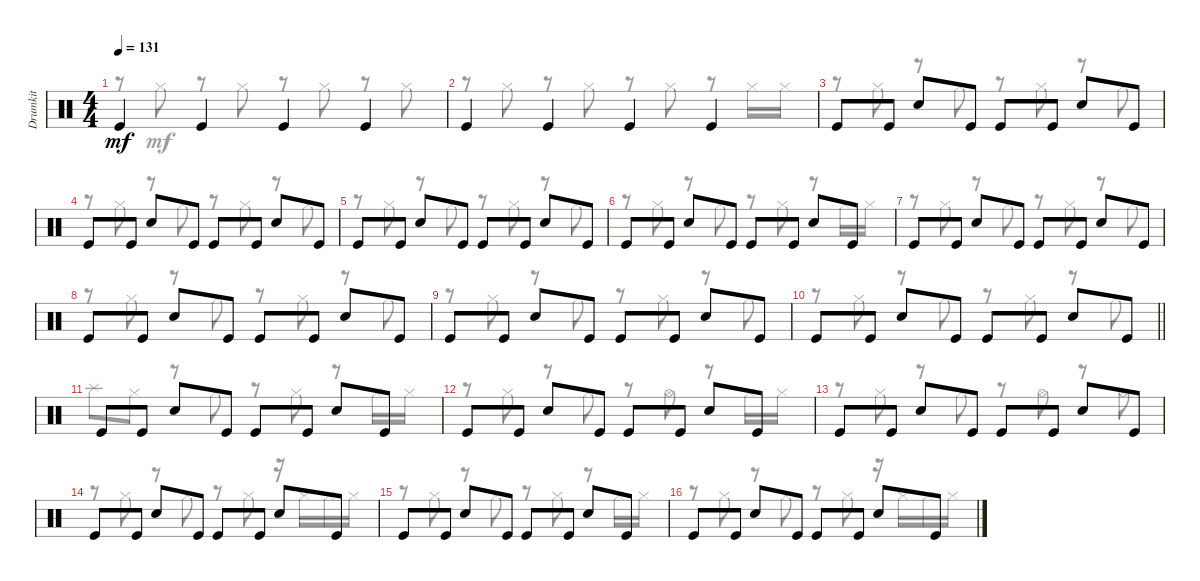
\track ("Drumkit" "Drumkit") {instrument percussion}
\staff {score}
\articulation defaults
\voice
\ts (4 4)
\tempo 131
\clef neutral
\ks c "Kick (hit)".4{dy mf} "Kick (hit)".4 "Kick (hit)".4 "Kick (hit)".4
|
"Kick (hit)".4 "Kick (hit)".4 "Kick (hit)".4 "Kick (hit)".4 |
"Kick (hit)".8 "Kick (hit)".8 "Snare (hit) 2".8 "Kick (hit)".8 "Kick (hit)".8 "Kick (hit)".8 "Snare (hit) 2".8 "Kick (hit)".8 |
"Kick (hit)".8 "Kick (hit)".8 "Snare (hit) 2".8 "Kick (hit)".8 "Kick (hit)".8 "Kick (hit)".8 "Snare (hit) 2".8 "Kick (hit)".8 |
"Kick (hit)".8 "Kick (hit)".8 "Snare (hit) 2".8 "Kick (hit)".8 "Kick (hit)".8 "Kick (hit)".8 "Snare (hit) 2".8 "Kick (hit)".8 |
"Kick (hit)".8 "Kick (hit)".8 "Snare (hit) 2".8 "Kick (hit)".8 "Kick (hit)".8 "Kick (hit)".8 "Snare (hit) 2".8 "Kick (hit)".8 |
"Kick (hit)".8 "Kick (hit)".8 "Snare (hit) 2".8 "Kick (hit)".8 "Kick (hit)".8 "Kick (hit)".8 "Snare (hit) 2".8 "Kick (hit)".8 |
"Kick (hit)".8 "Kick (hit)".8 "Snare (hit) 2".8 "Kick (hit)".8 "Kick (hit)".8 "Kick (hit)".8 "Snare (hit) 2".8 "Kick (hit)".8 |
"Kick (hit)".8 "Kick (hit)".8 "Snare (hit) 2".8 "Kick (hit)".8 "Kick (hit)".8 "Kick (hit)".8 "Snare (hit) 2".8 "Kick (hit)".8 |
\barLineRight lightlight "Kick (hit)".8 "Kick (hit)".8 "Snare (hit) 2".8 "Kick (hit)".8 "Kick (hit)".8 "Kick (hit)".8 "Snare (hit) 2".8 "Kick (hit)".8
|
"Kick (hit)".8 "Kick (hit)".8 "Snare (hit) 2".8 "Kick (hit)".8 "Kick (hit)".8 "Kick (hit)".8 "Snare (hit) 2".8 "Kick (hit)".8 |
"Kick (hit)".8 "Kick (hit)".8 "Snare (hit) 2".8 "Kick (hit)".8 "Kick (hit)".8 "Kick (hit)".8 "Snare (hit) 2".8 "Kick (hit)".8 |
"Kick (hit)".8 "Kick (hit)".8 "Snare (hit) 2".8 "Kick (hit)".8 "Kick (hit)".8 "Kick (hit)".8 "Snare (hit) 2".8 "Kick (hit)".8 |
"Kick (hit)".8 "Kick (hit)".8 "Snare (hit) 2".8 "Kick (hit)".8 "Kick (hit)".8 "Kick (hit)".8 "Snare (hit) 2".8 "Kick (hit)".8 |
"Kick (hit)".8 "Kick (hit)".8 "Snare (hit) 2".8 "Kick (hit)".8 "Kick (hit)".8 "Kick (hit)".8 "Snare (hit) 2".8 "Kick (hit)".8 |
"Kick (hit)".8 "Kick (hit)".8 "Snare (hit) 2".8 "Kick (hit)".8 "Kick (hit)".8 "Kick (hit)".8 "Snare (hit) 2".8 "Kick (hit)".8
\voice
\clef neutral
\ottava regular
\simile none
\ks c
r.8{dy mf} "Hi-Hat (closed)".8 r.8 "Hi-Hat (closed)".8 r.8 "Hi-Hat (closed)".8 r.8 "Hi-Hat (closed)".8 |
r.8 "Hi-Hat (closed)".8 r.8 "Hi-Hat (closed)".8 r.8 "Hi-Hat (closed)".8 r.8 "Hi-Hat (closed)".16 "Hi-Hat (closed)".16 |
r.8 "Hi-Hat (closed)".8 r.8 "Hi-Hat (closed)".8 r.8 "Hi-Hat (closed)".8 r.8 "Hi-Hat (closed)".8 |
r.8 "Hi-Hat (closed)".8 r.8 "Hi-Hat (closed)".8 r.8 "Hi-Hat (closed)".8 r.8 "Hi-Hat (closed)".8 |
r.8 "Hi-Hat (closed)".8 r.8 "Hi-Hat (closed)".8 r.8 "Hi-Hat (closed)".8 r.8 "Hi-Hat (closed)".8 |
r.8 "Hi-Hat (closed)".8 r.8 "Hi-Hat (closed)".8 r.8 "Hi-Hat (closed)".8 r.8 "Hi-Hat (closed)".16 "Hi-Hat (closed)".16 |
r.8 "Hi-Hat (closed)".8 r.8 "Hi-Hat (closed)".8 r.8 "Hi-Hat (closed)".8 r.8 "Hi-Hat (closed)".8 |
r.8 "Hi-Hat (closed)".8 r.8 "Hi-Hat (closed)".8 r.8 "Hi-Hat (closed)".8 r.8 "Hi-Hat (closed)".8 |
r.8 "Hi-Hat (closed)".8 r.8 "Hi-Hat (closed)".8 r.8 "Hi-Hat (closed)".8 r.8 "Hi-Hat (closed)".8 |
\barLineRight lightlight
r.8 "Hi-Hat (closed)".8 r.8 "Hi-Hat (closed)".8 r.8 "Hi-Hat (closed)".8 r.8 "Hi-Hat (closed)".8 |
"Splash (hit)".8 "Hi-Hat (closed)".8 r.8 "Hi-Hat (closed)".8 r.8 "Hi-Hat (closed)".8 r.8 "Hi-Hat (closed)".16 "Hi-Hat (closed)".16 |
r.8 "Hi-Hat (closed)".8 r.8 "Hi-Hat (closed)".8 r.8 "Hi-Hat (open)".8 r.8 "Hi-Hat (closed)".16 "Hi-Hat (closed)".16 |
r.8 "Hi-Hat (closed)".8 r.8 "Hi-Hat (closed)".8 r.8 "Hi-Hat (open)".8 r.8 "Hi-Hat (open)".8 |
r.8 "Hi-Hat (closed)".8 r.8 "Hi-Hat (closed)".8 r.8 "Hi-Hat (closed)".8 r.16 "Hi-Hat (closed)".16 "Hi-Hat (closed)".16 "Hi-Hat (closed)".16 |
r.8 "Hi-Hat (closed)".8 r.8 "Hi-Hat (closed)".8 r.8 "Hi-Hat (closed)".8 r.8 "Hi-Hat (closed)".16 "Hi-Hat (closed)".16 |
r.8 "Hi-Hat (closed)".8 r.8 "Hi-Hat (closed)".8 r.8 "Hi-Hat (closed)".8 r.16 "Hi-Hat (closed)".16 "Hi-Hat (closed)".16 "Hi-Hat (closed)".16
